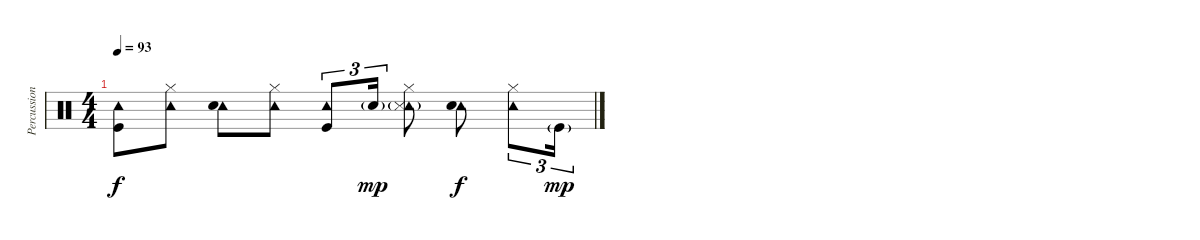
\track ("Percussion" "Percussion") {instrument percussion}
\staff {score}
\articulation defaults
\ts (4 4)
\tempo 93
\clef neutral
\ks c
("Tambourine (hit)" "Kick (hit)").8{dy f} ("Tambourine (hit)" "Hi-Hat (closed)").8 ("Tambourine (hit)" "Electric Snare (hit)").8 ("Tambourine (hit)" "Hi-Hat (closed)").8 ("Tambourine (hit)" "Kick (hit)").8{tu (3 2)} "Electric Snare (hit)"{g}.16{tu (3 2) dy mp} ("Tambourine (hit)" "Hi-Hat (closed)" "Snare (side stick) 3"{g}).8 ("Tambourine (hit)" "Electric Snare (hit)").8{dy f} ("Tambourine (hit)" "Hi-Hat (closed)").8{tu (3 2)} "Kick (hit)"{g}.16{tu (3 2) dy mp}
